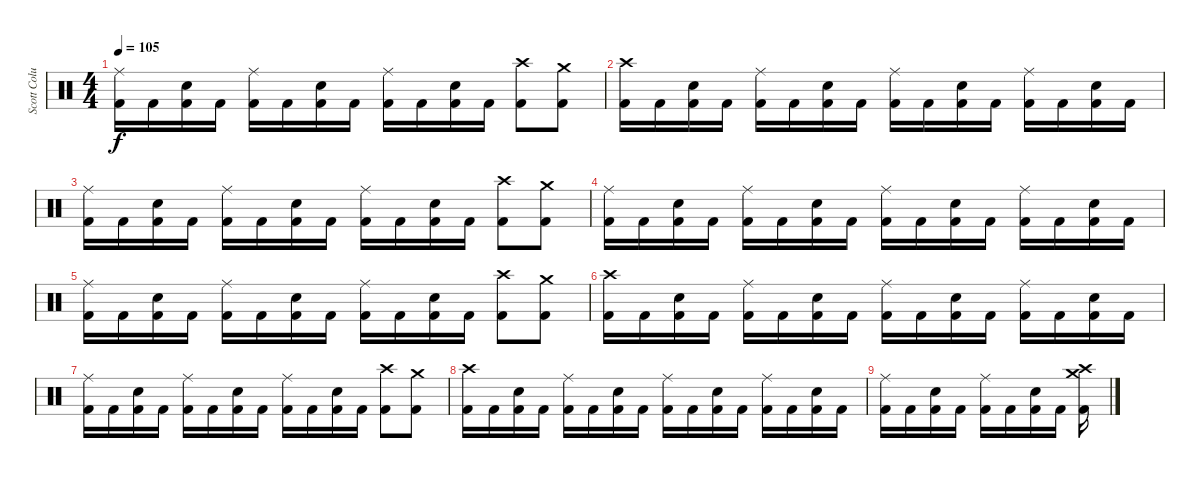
\track ("Scott Columbus" "Scott Colu") {instrument percussion}
\staff {score}
\articulation defaults
\ts (4 4)
\tempo 105
\clef neutral
\ks c
("Ride (middle)" "Kick (hit) 2").16{dy f} "Kick (hit) 2".16 ("Snare (hit) 2" "Kick (hit) 2").16 "Kick (hit) 2".16 ("Ride (middle)" "Kick (hit) 2").16 "Kick (hit) 2".16 ("Snare (hit) 2" "Kick (hit) 2").16 "Kick (hit) 2".16 ("Ride (middle)" "Kick (hit) 2").16 "Kick (hit) 2".16 ("Snare (hit) 2" "Kick (hit) 2").16 "Kick (hit) 2".16 ("Crash high (hit)" "Kick (hit) 2").8 ("Crash medium (hit)" "Kick (hit) 2").8 |
("Crash high (hit)" "Kick (hit) 2").16 "Kick (hit) 2".16 ("Snare (hit) 2" "Kick (hit) 2").16 "Kick (hit) 2".16 ("Ride (middle)" "Kick (hit) 2").16 "Kick (hit) 2".16 ("Snare (hit) 2" "Kick (hit) 2").16 "Kick (hit) 2".16 ("Ride (middle)" "Kick (hit) 2").16 "Kick (hit) 2".16 ("Snare (hit) 2" "Kick (hit) 2").16 "Kick (hit) 2".16 ("Ride (middle)" "Kick (hit) 2").16 "Kick (hit) 2".16 ("Snare (hit) 2" "Kick (hit) 2").16 "Kick (hit) 2".16 |
("Ride (middle)" "Kick (hit) 2").16 "Kick (hit) 2".16 ("Snare (hit) 2" "Kick (hit) 2").16 "Kick (hit) 2".16 ("Ride (middle)" "Kick (hit) 2").16 "Kick (hit) 2".16 ("Snare (hit) 2" "Kick (hit) 2").16 "Kick (hit) 2".16 ("Ride (middle)" "Kick (hit) 2").16 "Kick (hit) 2".16 ("Snare (hit) 2" "Kick (hit) 2").16 "Kick (hit) 2".16 ("Crash high (hit)" "Kick (hit) 2").8 ("Crash medium (hit)" "Kick (hit) 2").8 |
("Ride (middle)" "Kick (hit) 2").16 "Kick (hit) 2".16 ("Snare (hit) 2" "Kick (hit) 2").16 "Kick (hit) 2".16 ("Ride (middle)" "Kick (hit) 2").16 "Kick (hit) 2".16 ("Snare (hit) 2" "Kick (hit) 2").16 "Kick (hit) 2".16 ("Ride (middle)" "Kick (hit) 2").16 "Kick (hit) 2".16 ("Snare (hit) 2" "Kick (hit) 2").16 "Kick (hit) 2".16 ("Ride (middle)" "Kick (hit) 2").16 "Kick (hit) 2".16 ("Snare (hit) 2" "Kick (hit) 2").16 "Kick (hit) 2".16 |
("Ride (middle)" "Kick (hit) 2").16 "Kick (hit) 2".16 ("Snare (hit) 2" "Kick (hit) 2").16 "Kick (hit) 2".16 ("Ride (middle)" "Kick (hit) 2").16 "Kick (hit) 2".16 ("Snare (hit) 2" "Kick (hit) 2").16 "Kick (hit) 2".16 ("Ride (middle)" "Kick (hit) 2").16 "Kick (hit) 2".16 ("Snare (hit) 2" "Kick (hit) 2").16 "Kick (hit) 2".16 ("Crash high (hit)" "Kick (hit) 2").8 ("Crash medium (hit)" "Kick (hit) 2").8 |
("Crash high (hit)" "Kick (hit) 2").16 "Kick (hit) 2".16 ("Snare (hit) 2" "Kick (hit) 2").16 "Kick (hit) 2".16 ("Ride (middle)" "Kick (hit) 2").16 "Kick (hit) 2".16 ("Snare (hit) 2" "Kick (hit) 2").16 "Kick (hit) 2".16 ("Ride (middle)" "Kick (hit) 2").16 "Kick (hit) 2".16 ("Snare (hit) 2" "Kick (hit) 2").16 "Kick (hit) 2".16 ("Ride (middle)" "Kick (hit) 2").16 "Kick (hit) 2".16 ("Snare (hit) 2" "Kick (hit) 2").16 "Kick (hit) 2".16 |
("Ride (middle)" "Kick (hit) 2").16 "Kick (hit) 2".16 ("Snare (hit) 2" "Kick (hit) 2").16 "Kick (hit) 2".16 ("Ride (middle)" "Kick (hit) 2").16 "Kick (hit) 2".16 ("Snare (hit) 2" "Kick (hit) 2").16 "Kick (hit) 2".16 ("Ride (middle)" "Kick (hit) 2").16 "Kick (hit) 2".16 ("Snare (hit) 2" "Kick (hit) 2").16 "Kick (hit) 2".16 ("Crash high (hit)" "Kick (hit) 2").8 ("Crash medium (hit)" "Kick (hit) 2").8 |
("Crash high (hit)" "Kick (hit) 2").16 "Kick (hit) 2".16 ("Snare (hit) 2" "Kick (hit) 2").16 "Kick (hit) 2".16 ("Ride (middle)" "Kick (hit) 2").16 "Kick (hit) 2".16 ("Snare (hit) 2" "Kick (hit) 2").16 "Kick (hit) 2".16 ("Ride (middle)" "Kick (hit) 2").16 "Kick (hit) 2".16 ("Snare (hit) 2" "Kick (hit) 2").16 "Kick (hit) 2".16 ("Ride (middle)" "Kick (hit) 2").16 "Kick (hit) 2".16 ("Snare (hit) 2" "Kick (hit) 2").16 "Kick (hit) 2".16 |
("Ride (middle)" "Kick (hit) 2").16 "Kick (hit) 2".16 ("Snare (hit) 2" "Kick (hit) 2").16 "Kick (hit) 2".16 ("Ride (middle)" "Kick (hit) 2").16 "Kick (hit) 2".16 ("Snare (hit) 2" "Kick (hit) 2").16 "Kick (hit) 2".16 ("Crash high (hit)" "Crash medium (hit)" "Kick (hit) 2").16
